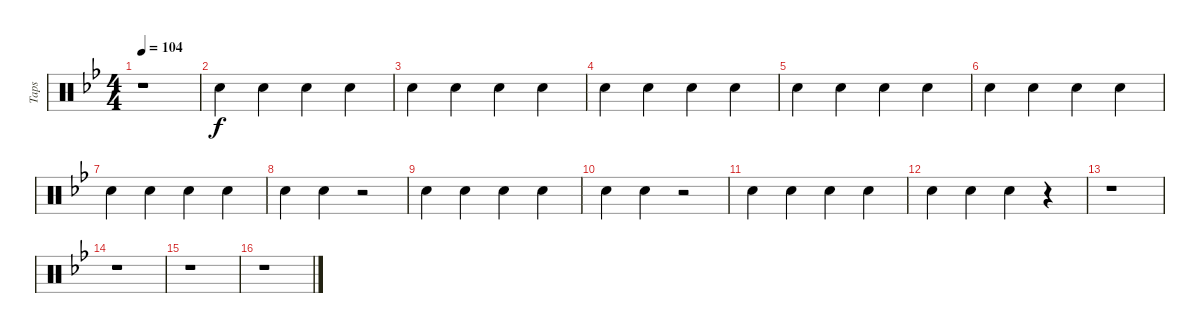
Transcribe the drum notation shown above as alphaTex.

\track ("Taps" "Taps") {instrument percussion}
\staff {score}
\articulation defaults
\ts (4 4)
\tempo 104
\clef neutral
\ks bb
r.1{dy f} |
"Hand Clap (hit)".4 "Hand Clap (hit)".4 "Hand Clap (hit)".4 "Hand Clap (hit)".4 |
"Hand Clap (hit)".4 "Hand Clap (hit)".4 "Hand Clap (hit)".4 "Hand Clap (hit)".4 |
"Hand Clap (hit)".4 "Hand Clap (hit)".4 "Hand Clap (hit)".4 "Hand Clap (hit)".4 |
"Hand Clap (hit)".4 "Hand Clap (hit)".4 "Hand Clap (hit)".4 "Hand Clap (hit)".4 |
"Hand Clap (hit)".4 "Hand Clap (hit)".4 "Hand Clap (hit)".4 "Hand Clap (hit)".4 |
"Hand Clap (hit)".4 "Hand Clap (hit)".4 "Hand Clap (hit)".4 "Hand Clap (hit)".4 |
"Hand Clap (hit)".4 "Hand Clap (hit)".4 r.2 |
"Hand Clap (hit)".4 "Hand Clap (hit)".4 "Hand Clap (hit)".4 "Hand Clap (hit)".4 |
"Hand Clap (hit)".4 "Hand Clap (hit)".4 r.2 |
"Hand Clap (hit)".4 "Hand Clap (hit)".4 "Hand Clap (hit)".4 "Hand Clap (hit)".4 |
"Hand Clap (hit)".4 "Hand Clap (hit)".4 "Hand Clap (hit)".4 r.4 |
r.1 |
r.1 |
r.1 |
r.1
